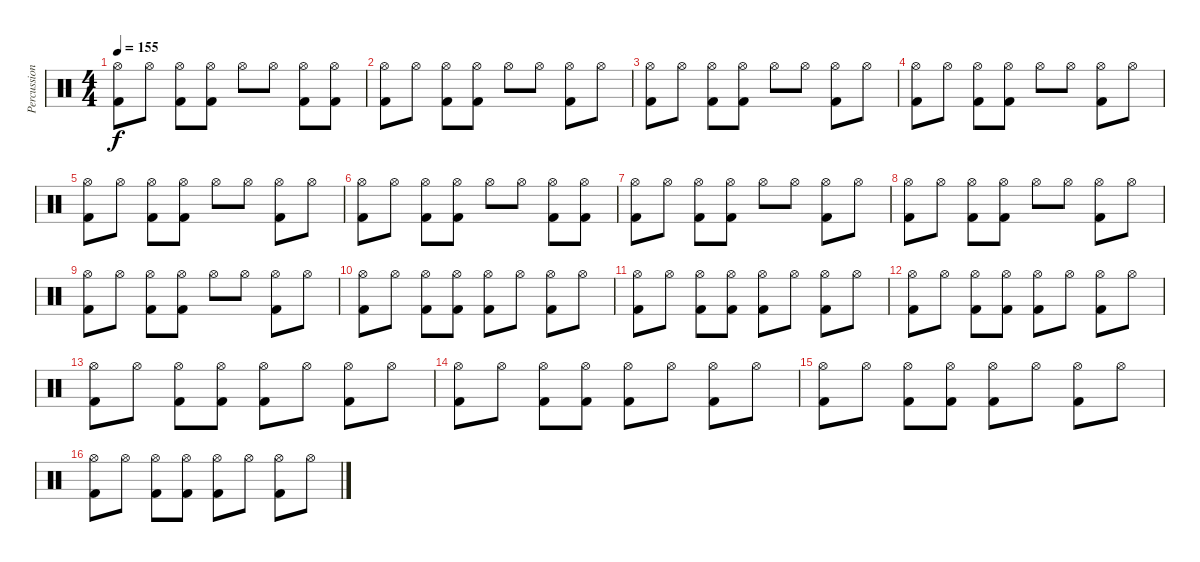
\track ("Percussion" "Percussion") {instrument percussion}
\staff {score}
\articulation defaults
\ts (4 4)
\tempo 155
\clef neutral
\ks c
("Hi-Hat (open)" "Kick (hit) 2").8{dy f} "Hi-Hat (open)".8 ("Hi-Hat (open)" "Kick (hit) 2").8 ("Hi-Hat (open)" "Kick (hit) 2").8 "Hi-Hat (open)".8 "Hi-Hat (open)".8 ("Hi-Hat (open)" "Kick (hit) 2").8 ("Hi-Hat (open)" "Kick (hit) 2").8 |
("Hi-Hat (open)" "Kick (hit) 2").8 "Hi-Hat (open)".8 ("Hi-Hat (open)" "Kick (hit) 2").8 ("Hi-Hat (open)" "Kick (hit) 2").8 "Hi-Hat (open)".8 "Hi-Hat (open)".8 ("Hi-Hat (open)" "Kick (hit) 2").8 "Hi-Hat (open)".8 |
("Hi-Hat (open)" "Kick (hit) 2").8 "Hi-Hat (open)".8 ("Hi-Hat (open)" "Kick (hit) 2").8 ("Hi-Hat (open)" "Kick (hit) 2").8 "Hi-Hat (open)".8 "Hi-Hat (open)".8 ("Hi-Hat (open)" "Kick (hit) 2").8 "Hi-Hat (open)".8 |
("Hi-Hat (open)" "Kick (hit) 2").8 "Hi-Hat (open)".8 ("Hi-Hat (open)" "Kick (hit) 2").8 ("Hi-Hat (open)" "Kick (hit) 2").8 "Hi-Hat (open)".8 "Hi-Hat (open)".8 ("Hi-Hat (open)" "Kick (hit) 2").8 "Hi-Hat (open)".8 |
("Hi-Hat (open)" "Kick (hit) 2").8 "Hi-Hat (open)".8 ("Hi-Hat (open)" "Kick (hit) 2").8 ("Hi-Hat (open)" "Kick (hit) 2").8 "Hi-Hat (open)".8 "Hi-Hat (open)".8 ("Hi-Hat (open)" "Kick (hit) 2").8 "Hi-Hat (open)".8 |
("Hi-Hat (open)" "Kick (hit) 2").8 "Hi-Hat (open)".8 ("Hi-Hat (open)" "Kick (hit) 2").8 ("Hi-Hat (open)" "Kick (hit) 2").8 "Hi-Hat (open)".8 "Hi-Hat (open)".8 ("Hi-Hat (open)" "Kick (hit) 2").8 ("Hi-Hat (open)" "Kick (hit) 2").8 |
("Hi-Hat (open)" "Kick (hit) 2").8 "Hi-Hat (open)".8 ("Hi-Hat (open)" "Kick (hit) 2").8 ("Hi-Hat (open)" "Kick (hit) 2").8 "Hi-Hat (open)".8 "Hi-Hat (open)".8 ("Hi-Hat (open)" "Kick (hit) 2").8 "Hi-Hat (open)".8 |
("Hi-Hat (open)" "Kick (hit) 2").8 "Hi-Hat (open)".8 ("Hi-Hat (open)" "Kick (hit) 2").8 ("Hi-Hat (open)" "Kick (hit) 2").8 "Hi-Hat (open)".8 "Hi-Hat (open)".8 ("Hi-Hat (open)" "Kick (hit) 2").8 "Hi-Hat (open)".8 |
("Hi-Hat (open)" "Kick (hit) 2").8 "Hi-Hat (open)".8 ("Hi-Hat (open)" "Kick (hit) 2").8 ("Hi-Hat (open)" "Kick (hit) 2").8 "Hi-Hat (open)".8 "Hi-Hat (open)".8 ("Hi-Hat (open)" "Kick (hit) 2").8 "Hi-Hat (open)".8 |
("Hi-Hat (open)" "Kick (hit) 2").8 "Hi-Hat (open)".8 ("Hi-Hat (open)" "Kick (hit) 2").8 ("Hi-Hat (open)" "Kick (hit) 2").8 ("Hi-Hat (open)" "Kick (hit) 2").8 "Hi-Hat (open)".8 ("Hi-Hat (open)" "Kick (hit) 2").8 "Hi-Hat (open)".8 |
("Hi-Hat (open)" "Kick (hit) 2").8 "Hi-Hat (open)".8 ("Hi-Hat (open)" "Kick (hit) 2").8 ("Hi-Hat (open)" "Kick (hit) 2").8 ("Hi-Hat (open)" "Kick (hit) 2").8 "Hi-Hat (open)".8 ("Hi-Hat (open)" "Kick (hit) 2").8 "Hi-Hat (open)".8 |
("Hi-Hat (open)" "Kick (hit) 2").8 "Hi-Hat (open)".8 ("Hi-Hat (open)" "Kick (hit) 2").8 ("Hi-Hat (open)" "Kick (hit) 2").8 ("Hi-Hat (open)" "Kick (hit) 2").8 "Hi-Hat (open)".8 ("Hi-Hat (open)" "Kick (hit) 2").8 "Hi-Hat (open)".8 |
("Hi-Hat (open)" "Kick (hit) 2").8 "Hi-Hat (open)".8 ("Hi-Hat (open)" "Kick (hit) 2").8 ("Hi-Hat (open)" "Kick (hit) 2").8 ("Hi-Hat (open)" "Kick (hit) 2").8 "Hi-Hat (open)".8 ("Hi-Hat (open)" "Kick (hit) 2").8 "Hi-Hat (open)".8 |
("Hi-Hat (open)" "Kick (hit) 2").8 "Hi-Hat (open)".8 ("Hi-Hat (open)" "Kick (hit) 2").8 ("Hi-Hat (open)" "Kick (hit) 2").8 ("Hi-Hat (open)" "Kick (hit) 2").8 "Hi-Hat (open)".8 ("Hi-Hat (open)" "Kick (hit) 2").8 "Hi-Hat (open)".8 |
("Hi-Hat (open)" "Kick (hit) 2").8 "Hi-Hat (open)".8 ("Hi-Hat (open)" "Kick (hit) 2").8 ("Hi-Hat (open)" "Kick (hit) 2").8 ("Hi-Hat (open)" "Kick (hit) 2").8 "Hi-Hat (open)".8 ("Hi-Hat (open)" "Kick (hit) 2").8 "Hi-Hat (open)".8 |
("Hi-Hat (open)" "Kick (hit) 2").8 "Hi-Hat (open)".8 ("Hi-Hat (open)" "Kick (hit) 2").8 ("Hi-Hat (open)" "Kick (hit) 2").8 ("Hi-Hat (open)" "Kick (hit) 2").8 "Hi-Hat (open)".8 ("Hi-Hat (open)" "Kick (hit) 2").8 "Hi-Hat (open)".8
